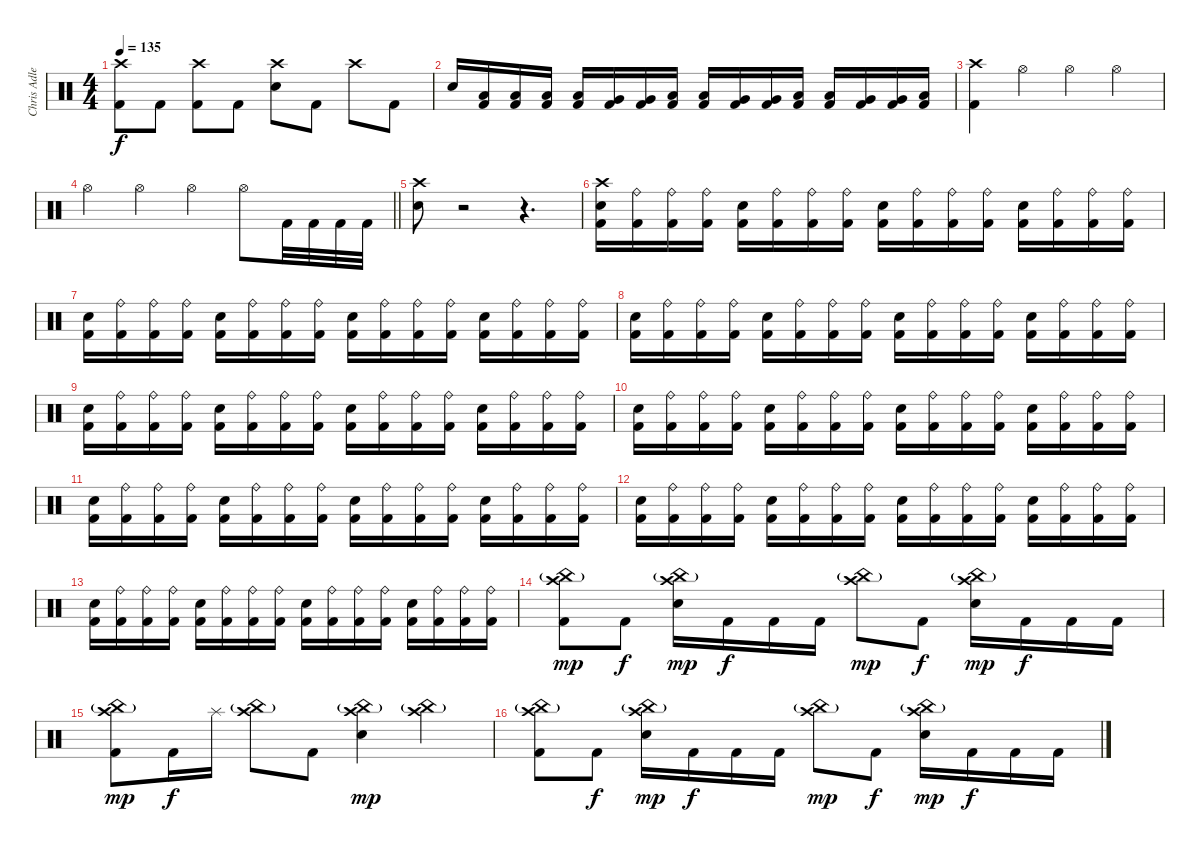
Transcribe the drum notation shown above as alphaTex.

\track ("Chris Adler Drums)" "Chris Adle") {instrument percussion}
\staff {score}
\articulation defaults
\ts (4 4)
\tempo 135
\clef neutral
\ks c
("Crash high (hit)" "Kick (hit) 2").8{dy f} "Kick (hit) 2".8 ("Crash high (hit)" "Kick (hit) 2").8 "Kick (hit) 2".8 ("Crash high (hit)" "Snare (hit) 2").8 "Kick (hit) 2".8 "Crash high (hit)".8 "Kick (hit) 2".8 |
"Snare (hit) 2".16 ("Low Floor Tom (hit)" "Kick (hit) 2").16 ("Low Floor Tom (hit)" "Kick (hit) 2").16 ("Low Floor Tom (hit)" "Kick (hit) 2").16 ("Low Floor Tom (hit)" "Kick (hit) 2").16 ("Very Low Tom (hit)" "Kick (hit) 2").16 ("Very Low Tom (hit)" "Kick (hit) 2").16 ("Low Floor Tom (hit)" "Kick (hit) 2").16 ("Low Floor Tom (hit)" "Kick (hit) 2").16 ("Very Low Tom (hit)" "Kick (hit) 2").16 ("Very Low Tom (hit)" "Kick (hit) 2").16 ("Low Floor Tom (hit)" "Kick (hit) 2").16 ("Low Floor Tom (hit)" "Kick (hit) 2").16 ("Very Low Tom (hit)" "Kick (hit) 2").16 ("Very Low Tom (hit)" "Kick (hit) 2").16 ("Low Floor Tom (hit)" "Kick (hit) 2").16 |
("Crash high (hit)" "Kick (hit) 2").4 "Hi-Hat (open)".4 "Hi-Hat (open)".4 "Hi-Hat (open)".4 |
\barLineRight lightlight "Hi-Hat (open)".4 "Hi-Hat (open)".4 "Hi-Hat (open)".4 "Hi-Hat (open)".8 "Kick (hit) 2".32 "Kick (hit) 2".32 "Kick (hit) 2".32 "Kick (hit) 2".32
|
("Crash high (hit)" "Snare (hit) 2").8 r.2{volume 0} r.4{d} |
("Crash high (hit)" "Snare (hit) 2" "Kick (hit) 2").16{volume 13} ("Ride (bell)" "Kick (hit) 2").16 ("Ride (bell)" "Kick (hit) 2").16 ("Ride (bell)" "Kick (hit) 2").16 ("Snare (hit) 2" "Kick (hit) 2").16 ("Ride (bell)" "Kick (hit) 2").16 ("Ride (bell)" "Kick (hit) 2").16 ("Ride (bell)" "Kick (hit) 2").16 ("Snare (hit) 2" "Kick (hit) 2").16 ("Ride (bell)" "Kick (hit) 2").16 ("Ride (bell)" "Kick (hit) 2").16 ("Ride (bell)" "Kick (hit) 2").16 ("Snare (hit) 2" "Kick (hit) 2").16 ("Ride (bell)" "Kick (hit) 2").16 ("Ride (bell)" "Kick (hit) 2").16 ("Ride (bell)" "Kick (hit) 2").16 |
("Snare (hit) 2" "Kick (hit) 2").16 ("Ride (bell)" "Kick (hit) 2").16 ("Ride (bell)" "Kick (hit) 2").16 ("Ride (bell)" "Kick (hit) 2").16 ("Snare (hit) 2" "Kick (hit) 2").16 ("Ride (bell)" "Kick (hit) 2").16 ("Ride (bell)" "Kick (hit) 2").16 ("Ride (bell)" "Kick (hit) 2").16 ("Snare (hit) 2" "Kick (hit) 2").16 ("Ride (bell)" "Kick (hit) 2").16 ("Ride (bell)" "Kick (hit) 2").16 ("Ride (bell)" "Kick (hit) 2").16 ("Snare (hit) 2" "Kick (hit) 2").16 ("Ride (bell)" "Kick (hit) 2").16 ("Ride (bell)" "Kick (hit) 2").16 ("Ride (bell)" "Kick (hit) 2").16 |
("Snare (hit) 2" "Kick (hit) 2").16 ("Ride (bell)" "Kick (hit) 2").16 ("Ride (bell)" "Kick (hit) 2").16 ("Ride (bell)" "Kick (hit) 2").16 ("Snare (hit) 2" "Kick (hit) 2").16 ("Ride (bell)" "Kick (hit) 2").16 ("Ride (bell)" "Kick (hit) 2").16 ("Ride (bell)" "Kick (hit) 2").16 ("Snare (hit) 2" "Kick (hit) 2").16 ("Ride (bell)" "Kick (hit) 2").16 ("Ride (bell)" "Kick (hit) 2").16 ("Ride (bell)" "Kick (hit) 2").16 ("Snare (hit) 2" "Kick (hit) 2").16 ("Ride (bell)" "Kick (hit) 2").16 ("Ride (bell)" "Kick (hit) 2").16 ("Ride (bell)" "Kick (hit) 2").16 |
("Snare (hit) 2" "Kick (hit) 2").16 ("Ride (bell)" "Kick (hit) 2").16 ("Ride (bell)" "Kick (hit) 2").16 ("Ride (bell)" "Kick (hit) 2").16 ("Snare (hit) 2" "Kick (hit) 2").16 ("Ride (bell)" "Kick (hit) 2").16 ("Ride (bell)" "Kick (hit) 2").16 ("Ride (bell)" "Kick (hit) 2").16 ("Snare (hit) 2" "Kick (hit) 2").16 ("Ride (bell)" "Kick (hit) 2").16 ("Ride (bell)" "Kick (hit) 2").16 ("Ride (bell)" "Kick (hit) 2").16 ("Snare (hit) 2" "Kick (hit) 2").16 ("Ride (bell)" "Kick (hit) 2").16 ("Ride (bell)" "Kick (hit) 2").16 ("Ride (bell)" "Kick (hit) 2").16 |
("Snare (hit) 2" "Kick (hit) 2").16 ("Ride (bell)" "Kick (hit) 2").16 ("Ride (bell)" "Kick (hit) 2").16 ("Ride (bell)" "Kick (hit) 2").16 ("Snare (hit) 2" "Kick (hit) 2").16 ("Ride (bell)" "Kick (hit) 2").16 ("Ride (bell)" "Kick (hit) 2").16 ("Ride (bell)" "Kick (hit) 2").16 ("Snare (hit) 2" "Kick (hit) 2").16 ("Ride (bell)" "Kick (hit) 2").16 ("Ride (bell)" "Kick (hit) 2").16 ("Ride (bell)" "Kick (hit) 2").16 ("Snare (hit) 2" "Kick (hit) 2").16 ("Ride (bell)" "Kick (hit) 2").16 ("Ride (bell)" "Kick (hit) 2").16 ("Ride (bell)" "Kick (hit) 2").16 |
("Snare (hit) 2" "Kick (hit) 2").16 ("Ride (bell)" "Kick (hit) 2").16 ("Ride (bell)" "Kick (hit) 2").16 ("Ride (bell)" "Kick (hit) 2").16 ("Snare (hit) 2" "Kick (hit) 2").16 ("Ride (bell)" "Kick (hit) 2").16 ("Ride (bell)" "Kick (hit) 2").16 ("Ride (bell)" "Kick (hit) 2").16 ("Snare (hit) 2" "Kick (hit) 2").16 ("Ride (bell)" "Kick (hit) 2").16 ("Ride (bell)" "Kick (hit) 2").16 ("Ride (bell)" "Kick (hit) 2").16 ("Snare (hit) 2" "Kick (hit) 2").16 ("Ride (bell)" "Kick (hit) 2").16 ("Ride (bell)" "Kick (hit) 2").16 ("Ride (bell)" "Kick (hit) 2").16 |
("Snare (hit) 2" "Kick (hit) 2").16 ("Ride (bell)" "Kick (hit) 2").16 ("Ride (bell)" "Kick (hit) 2").16 ("Ride (bell)" "Kick (hit) 2").16 ("Snare (hit) 2" "Kick (hit) 2").16 ("Ride (bell)" "Kick (hit) 2").16 ("Ride (bell)" "Kick (hit) 2").16 ("Ride (bell)" "Kick (hit) 2").16 ("Snare (hit) 2" "Kick (hit) 2").16 ("Ride (bell)" "Kick (hit) 2").16 ("Ride (bell)" "Kick (hit) 2").16 ("Ride (bell)" "Kick (hit) 2").16 ("Snare (hit) 2" "Kick (hit) 2").16 ("Ride (bell)" "Kick (hit) 2").16 ("Ride (bell)" "Kick (hit) 2").16 ("Ride (bell)" "Kick (hit) 2").16 |
("Snare (hit) 2" "Kick (hit) 2").16 ("Ride (bell)" "Kick (hit) 2").16 ("Ride (bell)" "Kick (hit) 2").16 ("Ride (bell)" "Kick (hit) 2").16 ("Snare (hit) 2" "Kick (hit) 2").16 ("Ride (bell)" "Kick (hit) 2").16 ("Ride (bell)" "Kick (hit) 2").16 ("Ride (bell)" "Kick (hit) 2").16 ("Snare (hit) 2" "Kick (hit) 2").16 ("Ride (bell)" "Kick (hit) 2").16 ("Ride (bell)" "Kick (hit) 2").16 ("Ride (bell)" "Kick (hit) 2").16 ("Snare (hit) 2" "Kick (hit) 2").16 ("Ride (bell)" "Kick (hit) 2").16 ("Ride (bell)" "Kick (hit) 2").16 ("Ride (bell)" "Kick (hit) 2").16 |
("Crash high (hit)" "China (hit)"{g} "Kick (hit) 2").8{dy mp} "Kick (hit) 2".8{dy f} ("Crash high (hit)" "China (hit)"{g} "Snare (hit) 2").16{dy mp} "Kick (hit) 2".16{dy f} "Kick (hit) 2".16 "Kick (hit) 2".16 ("Crash high (hit)" "China (hit)"{g}).8{dy mp} "Kick (hit) 2".8{dy f} ("Crash high (hit)" "China (hit)"{g} "Snare (hit) 2").16{dy mp} "Kick (hit) 2".16{dy f} "Kick (hit) 2".16 "Kick (hit) 2".16 |
("Crash high (hit)" "China (hit)"{g} "Kick (hit) 2").8{dy mp} "Kick (hit) 2".16{dy f} "Splash (hit)".16 ("Crash high (hit)" "China (hit)"{g}).8 "Kick (hit) 2".8 ("Crash high (hit)" "China (hit)"{g} "Snare (hit) 2").4{dy mp} ("Crash high (hit)" "China (hit)"{g}).4 |
("Crash high (hit)" "China (hit)"{g} "Kick (hit) 2").8 "Kick (hit) 2".8{dy f} ("Crash high (hit)" "China (hit)"{g} "Snare (hit) 2").16{dy mp} "Kick (hit) 2".16{dy f} "Kick (hit) 2".16 "Kick (hit) 2".16 ("Crash high (hit)" "China (hit)"{g}).8{dy mp} "Kick (hit) 2".8{dy f} ("Crash high (hit)" "China (hit)"{g} "Snare (hit) 2").16{dy mp} "Kick (hit) 2".16{dy f} "Kick (hit) 2".16 "Kick (hit) 2".16
